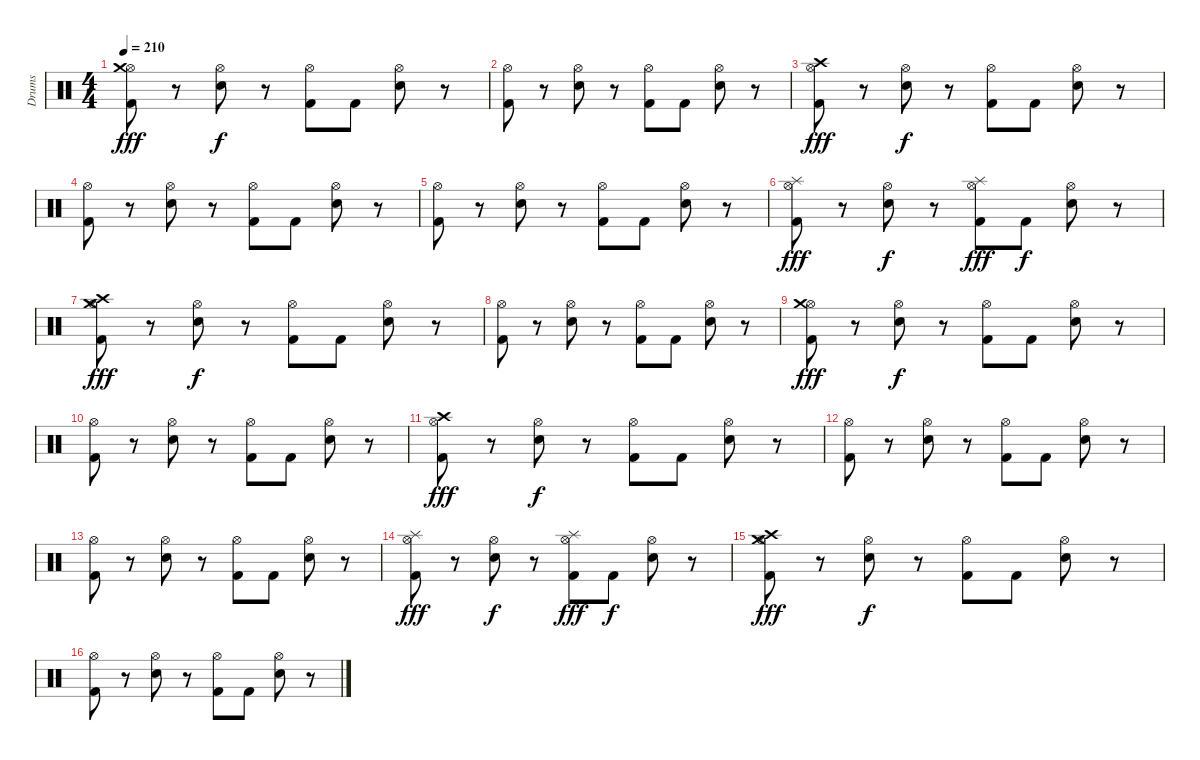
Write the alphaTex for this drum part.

\track ("Drums" "Drums") {instrument percussion}
\staff {score}
\articulation defaults
\ts (4 4)
\tempo 210
\clef neutral
\ks c
("Hi-Hat (open)" "Crash medium (hit)" "Kick (hit) 2").8{dy fff} r.8 ("Hi-Hat (open)" "Electric Snare (hit)").8{dy f} r.8 ("Hi-Hat (open)" "Kick (hit) 2").8 "Kick (hit) 2".8 ("Hi-Hat (open)" "Electric Snare (hit)").8 r.8 |
("Hi-Hat (open)" "Kick (hit) 2").8 r.8 ("Hi-Hat (open)" "Electric Snare (hit)").8 r.8 ("Hi-Hat (open)" "Kick (hit) 2").8 "Kick (hit) 2".8 ("Hi-Hat (open)" "Electric Snare (hit)").8 r.8 |
("Hi-Hat (open)" "Crash high (hit)" "Kick (hit) 2").8{dy fff} r.8 ("Hi-Hat (open)" "Electric Snare (hit)").8{dy f} r.8 ("Hi-Hat (open)" "Kick (hit) 2").8 "Kick (hit) 2".8 ("Hi-Hat (open)" "Electric Snare (hit)").8 r.8 |
("Hi-Hat (open)" "Kick (hit) 2").8 r.8 ("Hi-Hat (open)" "Electric Snare (hit)").8 r.8 ("Hi-Hat (open)" "Kick (hit) 2").8 "Kick (hit) 2".8 ("Hi-Hat (open)" "Electric Snare (hit)").8 r.8 |
("Hi-Hat (open)" "Kick (hit) 2").8 r.8 ("Hi-Hat (open)" "Electric Snare (hit)").8 r.8 ("Hi-Hat (open)" "Kick (hit) 2").8 "Kick (hit) 2".8 ("Hi-Hat (open)" "Electric Snare (hit)").8 r.8 |
("Hi-Hat (open)" "Splash (hit)" "Kick (hit) 2").8{dy fff} r.8 ("Hi-Hat (open)" "Electric Snare (hit)").8{dy f} r.8 ("Hi-Hat (open)" "Splash (hit)" "Kick (hit) 2").8{dy fff} "Kick (hit) 2".8{dy f} ("Hi-Hat (open)" "Electric Snare (hit)").8 r.8 |
("Hi-Hat (open)" "Crash high (hit)" "Crash medium (hit)" "Kick (hit) 2").8{dy fff} r.8 ("Hi-Hat (open)" "Electric Snare (hit)").8{dy f} r.8 ("Hi-Hat (open)" "Kick (hit) 2").8 "Kick (hit) 2".8 ("Hi-Hat (open)" "Electric Snare (hit)").8 r.8 |
("Hi-Hat (open)" "Kick (hit) 2").8 r.8 ("Hi-Hat (open)" "Electric Snare (hit)").8 r.8 ("Hi-Hat (open)" "Kick (hit) 2").8 "Kick (hit) 2".8 ("Hi-Hat (open)" "Electric Snare (hit)").8 r.8 |
("Hi-Hat (open)" "Crash medium (hit)" "Kick (hit) 2").8{dy fff} r.8 ("Hi-Hat (open)" "Electric Snare (hit)").8{dy f} r.8 ("Hi-Hat (open)" "Kick (hit) 2").8 "Kick (hit) 2".8 ("Hi-Hat (open)" "Electric Snare (hit)").8 r.8 |
("Hi-Hat (open)" "Kick (hit) 2").8 r.8 ("Hi-Hat (open)" "Electric Snare (hit)").8 r.8 ("Hi-Hat (open)" "Kick (hit) 2").8 "Kick (hit) 2".8 ("Hi-Hat (open)" "Electric Snare (hit)").8 r.8 |
("Hi-Hat (open)" "Crash high (hit)" "Kick (hit) 2").8{dy fff} r.8 ("Hi-Hat (open)" "Electric Snare (hit)").8{dy f} r.8 ("Hi-Hat (open)" "Kick (hit) 2").8 "Kick (hit) 2".8 ("Hi-Hat (open)" "Electric Snare (hit)").8 r.8 |
("Hi-Hat (open)" "Kick (hit) 2").8 r.8 ("Hi-Hat (open)" "Electric Snare (hit)").8 r.8 ("Hi-Hat (open)" "Kick (hit) 2").8 "Kick (hit) 2".8 ("Hi-Hat (open)" "Electric Snare (hit)").8 r.8 |
("Hi-Hat (open)" "Kick (hit) 2").8 r.8 ("Hi-Hat (open)" "Electric Snare (hit)").8 r.8 ("Hi-Hat (open)" "Kick (hit) 2").8 "Kick (hit) 2".8 ("Hi-Hat (open)" "Electric Snare (hit)").8 r.8 |
("Hi-Hat (open)" "Splash (hit)" "Kick (hit) 2").8{dy fff} r.8 ("Hi-Hat (open)" "Electric Snare (hit)").8{dy f} r.8 ("Hi-Hat (open)" "Splash (hit)" "Kick (hit) 2").8{dy fff} "Kick (hit) 2".8{dy f} ("Hi-Hat (open)" "Electric Snare (hit)").8 r.8 |
("Hi-Hat (open)" "Crash high (hit)" "Crash medium (hit)" "Kick (hit) 2").8{dy fff} r.8 ("Hi-Hat (open)" "Electric Snare (hit)").8{dy f} r.8 ("Hi-Hat (open)" "Kick (hit) 2").8 "Kick (hit) 2".8 ("Hi-Hat (open)" "Electric Snare (hit)").8 r.8 |
("Hi-Hat (open)" "Kick (hit) 2").8 r.8 ("Hi-Hat (open)" "Electric Snare (hit)").8 r.8 ("Hi-Hat (open)" "Kick (hit) 2").8 "Kick (hit) 2".8 ("Hi-Hat (open)" "Electric Snare (hit)").8 r.8
